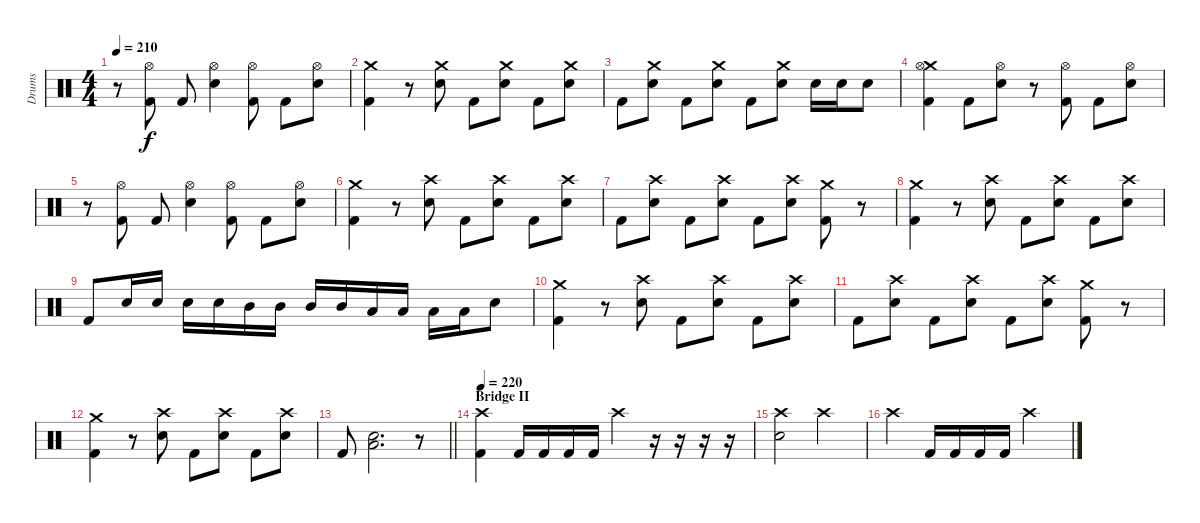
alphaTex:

\track ("Drums" "Drums") {instrument percussion}
\staff {score}
\articulation defaults
\ts (4 4)
\tempo 210
\clef neutral
\ks c
r.8{dy f} ("Hi-Hat (open)" "Kick (hit) 2").8 "Kick (hit) 2".8 ("Hi-Hat (open)" "Electric Snare (hit)").4 ("Hi-Hat (open)" "Kick (hit) 2").8 "Kick (hit) 2".8 ("Hi-Hat (open)" "Electric Snare (hit)").8 |
("Crash medium (hit)" "Kick (hit) 2").4 r.8 ("Crash medium (hit)" "Electric Snare (hit)").8 "Kick (hit) 2".8 ("Crash medium (hit)" "Electric Snare (hit)").8 "Kick (hit) 2".8 ("Crash medium (hit)" "Electric Snare (hit)").8 |
"Kick (hit) 2".8 ("Crash medium (hit)" "Electric Snare (hit)").8 "Kick (hit) 2".8 ("Crash medium (hit)" "Electric Snare (hit)").8 "Kick (hit) 2".8 ("Crash medium (hit)" "Electric Snare (hit)").8 "Electric Snare (hit)".16 "Electric Snare (hit)".16 "Electric Snare (hit)".8 |
("Crash medium (hit)" "Hi-Hat (open)" "Kick (hit) 2").4 "Kick (hit) 2".8 ("Hi-Hat (open)" "Electric Snare (hit)").8 r.8 ("Hi-Hat (open)" "Kick (hit) 2").8 "Kick (hit) 2".8 ("Hi-Hat (open)" "Electric Snare (hit)").8 |
r.8 ("Hi-Hat (open)" "Kick (hit) 2").8 "Kick (hit) 2".8 ("Hi-Hat (open)" "Electric Snare (hit)").4 ("Hi-Hat (open)" "Kick (hit) 2").8 "Kick (hit) 2".8 ("Hi-Hat (open)" "Electric Snare (hit)").8 |
("Crash medium (hit)" "Kick (hit) 2").4 r.8 ("Crash high (hit)" "Electric Snare (hit)").8 "Kick (hit) 2".8 ("Crash high (hit)" "Electric Snare (hit)").8 "Kick (hit) 2".8 ("Crash high (hit)" "Electric Snare (hit)").8 |
"Kick (hit) 2".8 ("Crash high (hit)" "Electric Snare (hit)").8 "Kick (hit) 2".8 ("Crash high (hit)" "Electric Snare (hit)").8 "Kick (hit) 2".8 ("Crash high (hit)" "Electric Snare (hit)").8 ("Crash medium (hit)" "Kick (hit) 2").8 r.8 |
("Crash medium (hit)" "Kick (hit) 2").4 r.8 ("Crash high (hit)" "Electric Snare (hit)").8 "Kick (hit) 2".8 ("Crash high (hit)" "Electric Snare (hit)").8 "Kick (hit) 2".8 ("Crash high (hit)" "Electric Snare (hit)").8 |
"Kick (hit) 2".8 "Electric Snare (hit)".16 "Electric Snare (hit)".16 "Electric Snare (hit)".16 "Electric Snare (hit)".16 "Mid Tom (hit)".16 "Mid Tom (hit)".16 "Mid Tom (hit)".16 "Mid Tom (hit)".16 "Low Tom (hit)".16 "Low Tom (hit)".16 "Low Tom (hit)".16 "Low Tom (hit)".16 "Electric Snare (hit)".8 |
("Crash medium (hit)" "Kick (hit) 2").4 r.8 ("Crash high (hit)" "Electric Snare (hit)").8 "Kick (hit) 2".8 ("Crash high (hit)" "Electric Snare (hit)").8 "Kick (hit) 2".8 ("Crash high (hit)" "Electric Snare (hit)").8 |
"Kick (hit) 2".8 ("Crash high (hit)" "Electric Snare (hit)").8 "Kick (hit) 2".8 ("Crash high (hit)" "Electric Snare (hit)").8 "Kick (hit) 2".8 ("Crash high (hit)" "Electric Snare (hit)").8 ("Crash medium (hit)" "Kick (hit) 2").8 r.8 |
("Crash medium (hit)" "Kick (hit) 2").4 r.8 ("Crash high (hit)" "Electric Snare (hit)").8 "Kick (hit) 2".8 ("Crash high (hit)" "Electric Snare (hit)").8 "Kick (hit) 2".8 ("Crash high (hit)" "Electric Snare (hit)").8 |
\barLineRight lightlight "Kick (hit) 2".8
("Low Floor Tom (hit)" "Electric Snare (hit)").2{d} r.8 |
\section ("" "Bridge II")
\tempo 220
("Crash high (hit)" "Kick (hit) 2").4 "Kick (hit) 2".16 "Kick (hit) 2".16 "Kick (hit) 2".16 "Kick (hit) 2".16 "Crash high (hit)".4 r.16 r.16 r.16 r.16 |
("Crash high (hit)" "Electric Snare (hit)").2 "Crash high (hit)".2 |
"Crash high (hit)".4 "Kick (hit) 2".16 "Kick (hit) 2".16 "Kick (hit) 2".16 "Kick (hit) 2".16 "Crash high (hit)".2
